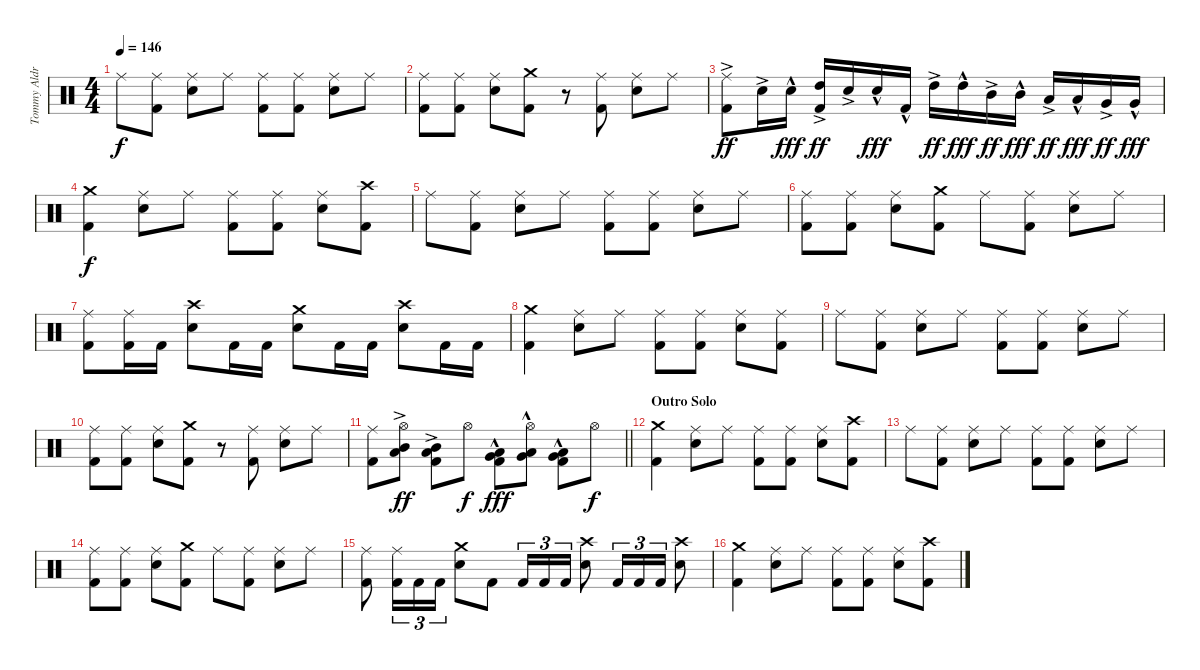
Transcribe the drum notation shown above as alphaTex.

\track ("Tommy Aldridge Drums" "Tommy Aldr") {instrument percussion}
\staff {score}
\articulation defaults
\ts (4 4)
\tempo 146
\clef neutral
\ks aminor "Ride (middle)".8{dy f}
("Ride (middle)" "Kick (hit) 2").8 ("Ride (middle)" "Electric Snare (hit)").8 "Ride (middle)".8 ("Ride (middle)" "Kick (hit) 2").8 ("Ride (middle)" "Kick (hit) 2").8 ("Ride (middle)" "Electric Snare (hit)").8 "Ride (middle)".8 |
("Ride (middle)" "Kick (hit) 2").8 ("Ride (middle)" "Kick (hit) 2").8 ("Ride (middle)" "Electric Snare (hit)").8 ("Crash medium (hit)" "Kick (hit) 2").8 r.8 ("Ride (middle)" "Kick (hit) 2").8 ("Ride (middle)" "Electric Snare (hit)").8 "Ride (middle)".8 |
("Ride (middle)"{ac} "Kick (hit) 2"{ac}).8{dy ff} "Electric Snare (hit)"{ac}.16 "Electric Snare (hit)"{hac}.16{dy fff} ("High Tom (hit)"{ac} "Kick (hit) 2"{ac}).16{dy ff} "Electric Snare (hit)"{ac}.16 "Electric Snare (hit)"{hac}.16{dy fff} "Kick (hit) 2"{hac}.16 "High Tom (hit)"{ac}.16{dy ff} "High Tom (hit)"{hac}.16{dy fff} "Mid Tom (hit)"{ac}.16{dy ff} "Mid Tom (hit)"{hac}.16{dy fff} "Low Tom (hit)"{ac}.16{dy ff} "Low Tom (hit)"{hac}.16{dy fff} "Very Low Tom (hit)"{ac}.16{dy ff} "Very Low Tom (hit)"{hac}.16{dy fff} |
("Crash medium (hit)" "Kick (hit) 2").4{dy f} ("Ride (middle)" "Electric Snare (hit)").8 "Ride (middle)".8 ("Ride (middle)" "Kick (hit) 2").8 ("Ride (middle)" "Kick (hit) 2").8 ("Ride (middle)" "Electric Snare (hit)").8 ("Crash high (hit)" "Kick (hit) 2").8 |
"Ride (middle)".8 ("Ride (middle)" "Kick (hit) 2").8 ("Ride (middle)" "Electric Snare (hit)").8 "Ride (middle)".8 ("Ride (middle)" "Kick (hit) 2").8 ("Ride (middle)" "Kick (hit) 2").8 ("Ride (middle)" "Electric Snare (hit)").8 "Ride (middle)".8 |
("Ride (middle)" "Kick (hit) 2").8 ("Ride (middle)" "Kick (hit) 2").8 ("Ride (middle)" "Electric Snare (hit)").8 ("Crash medium (hit)" "Kick (hit) 2").8 "Ride (middle)".8 ("Ride (middle)" "Kick (hit) 2").8 ("Ride (middle)" "Electric Snare (hit)").8 "Ride (middle)".8 |
("Ride (middle)" "Kick (hit) 2").8 ("Ride (middle)" "Kick (hit) 2").16 "Kick (hit) 2".16 ("Crash high (hit)" "Electric Snare (hit)").8 "Kick (hit) 2".16 "Kick (hit) 2".16 ("Crash medium (hit)" "Electric Snare (hit)").8 "Kick (hit) 2".16 "Kick (hit) 2".16 ("Crash high (hit)" "Electric Snare (hit)").8 "Kick (hit) 2".16 "Kick (hit) 2".16 |
("Crash medium (hit)" "Kick (hit) 2").4 ("Ride (middle)" "Electric Snare (hit)").8 "Ride (middle)".8 ("Ride (middle)" "Kick (hit) 2").8 ("Ride (middle)" "Kick (hit) 2").8 ("Ride (middle)" "Electric Snare (hit)").8 ("Ride (middle)" "Kick (hit) 2").8 |
"Ride (middle)".8 ("Ride (middle)" "Kick (hit) 2").8 ("Ride (middle)" "Electric Snare (hit)").8 "Ride (middle)".8 ("Ride (middle)" "Kick (hit) 2").8 ("Ride (middle)" "Kick (hit) 2").8 ("Ride (middle)" "Electric Snare (hit)").8 "Ride (middle)".8 |
("Ride (middle)" "Kick (hit) 2").8 ("Ride (middle)" "Kick (hit) 2").8 ("Ride (middle)" "Electric Snare (hit)").8 ("Crash medium (hit)" "Kick (hit) 2").8 r.8 ("Ride (middle)" "Kick (hit) 2").8 ("Ride (middle)" "Electric Snare (hit)").8 "Ride (middle)".8 |
\barLineRight lightlight
("Ride (middle)" "Kick (hit) 2").8 ("Hi-Hat (open)" "Mid Tom (hit)"{ac} "Low Tom (hit)"{ac}).8{dy ff} ("Mid Tom (hit)"{ac} "Low Tom (hit)"{ac} "Kick (hit) 2").8 "Hi-Hat (open)".8{dy f} ("Low Tom (hit)"{hac} "Very Low Tom (hit)"{hac} "Kick (hit) 2").8{dy fff} ("Hi-Hat (open)" "Low Tom (hit)"{hac} "Very Low Tom (hit)"{hac}).8 ("Low Tom (hit)"{hac} "Very Low Tom (hit)"{hac} "Kick (hit) 2").8 "Hi-Hat (open)".8{dy f} |
\section ("" "Outro Solo")
("Crash medium (hit)" "Kick (hit) 2").4 ("Ride (middle)" "Electric Snare (hit)").8 "Ride (middle)".8 ("Ride (middle)" "Kick (hit) 2").8 ("Ride (middle)" "Kick (hit) 2").8 ("Ride (middle)" "Electric Snare (hit)").8 ("Crash high (hit)" "Kick (hit) 2").8 |
"Ride (middle)".8 ("Ride (middle)" "Kick (hit) 2").8 ("Ride (middle)" "Electric Snare (hit)").8 "Ride (middle)".8 ("Ride (middle)" "Kick (hit) 2").8 ("Ride (middle)" "Kick (hit) 2").8 ("Ride (middle)" "Electric Snare (hit)").8 "Ride (middle)".8 |
("Ride (middle)" "Kick (hit) 2").8 ("Ride (middle)" "Kick (hit) 2").8 ("Ride (middle)" "Electric Snare (hit)").8 ("Crash medium (hit)" "Kick (hit) 2").8 "Ride (middle)".8 ("Ride (middle)" "Kick (hit) 2").8 ("Ride (middle)" "Electric Snare (hit)").8 "Ride (middle)".8 |
("Ride (middle)" "Kick (hit) 2").8 ("Ride (middle)" "Kick (hit) 2").16{tu (3 2)} "Kick (hit) 2".16{tu (3 2)} "Kick (hit) 2".16{tu (3 2)} ("Crash medium (hit)" "Electric Snare (hit)").8 "Kick (hit) 2".8 "Kick (hit) 2".16{tu (3 2)} "Kick (hit) 2".16{tu (3 2)} "Kick (hit) 2".16{tu (3 2)} ("Crash high (hit)" "Electric Snare (hit)").8 "Kick (hit) 2".16{tu (3 2)} "Kick (hit) 2".16{tu (3 2)} "Kick (hit) 2".16{tu (3 2)} ("Crash high (hit)" "Electric Snare (hit)").8 |
("Crash medium (hit)" "Kick (hit) 2").4 ("Ride (middle)" "Electric Snare (hit)").8 "Ride (middle)".8 ("Ride (middle)" "Kick (hit) 2").8 ("Ride (middle)" "Kick (hit) 2").8 ("Ride (middle)" "Electric Snare (hit)").8 ("Crash high (hit)" "Kick (hit) 2").8
